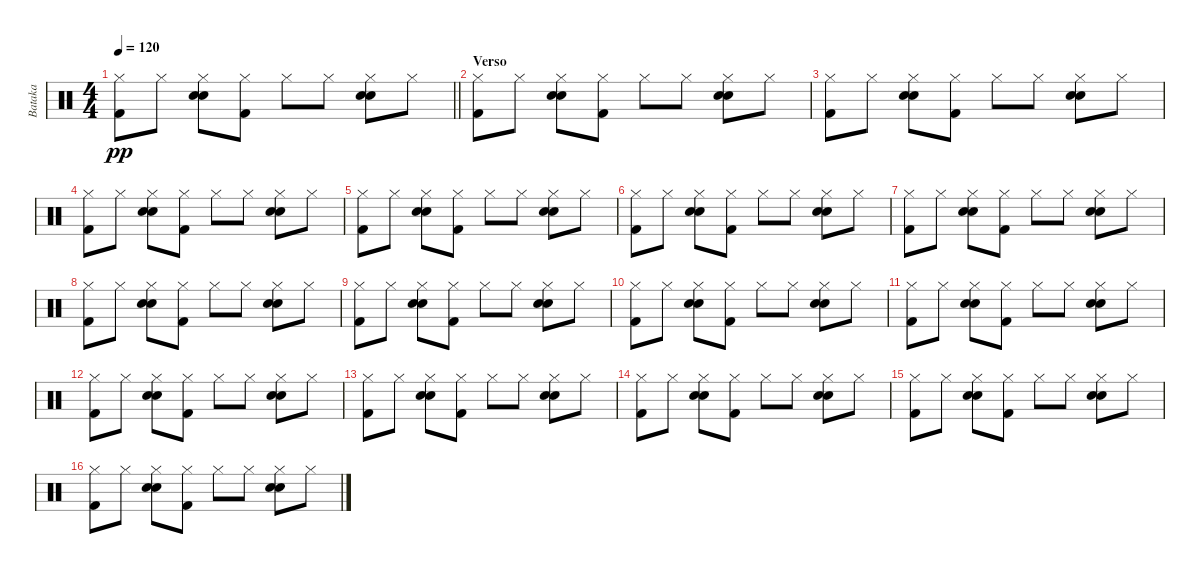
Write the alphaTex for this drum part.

\track ("Bataka" "Bataka") {instrument percussion}
\staff {score}
\articulation defaults
\ts (4 4)
\tempo 120
\clef neutral
\barLineRight lightlight
\ks c
("Hi-Hat (closed)" "Kick (hit) 2").8{dy pp} "Hi-Hat (closed)".8 ("Hi-Hat (closed)" "Electric Snare (hit)" "Snare (hit) 2").8 ("Hi-Hat (closed)" "Kick (hit) 2").8 "Hi-Hat (closed)".8 "Hi-Hat (closed)".8 ("Hi-Hat (closed)" "Snare (hit) 2" "Electric Snare (hit)").8 "Hi-Hat (closed)".8 |
\section ("" "Verso")
("Hi-Hat (closed)" "Kick (hit) 2").8 "Hi-Hat (closed)".8 ("Hi-Hat (closed)" "Electric Snare (hit)" "Snare (hit) 2").8 ("Hi-Hat (closed)" "Kick (hit) 2").8 "Hi-Hat (closed)".8 "Hi-Hat (closed)".8 ("Hi-Hat (closed)" "Snare (hit) 2" "Electric Snare (hit)").8 "Hi-Hat (closed)".8 |
("Hi-Hat (closed)" "Kick (hit) 2").8 "Hi-Hat (closed)".8 ("Hi-Hat (closed)" "Electric Snare (hit)" "Snare (hit) 2").8 ("Hi-Hat (closed)" "Kick (hit) 2").8 "Hi-Hat (closed)".8 "Hi-Hat (closed)".8 ("Hi-Hat (closed)" "Snare (hit) 2" "Electric Snare (hit)").8 "Hi-Hat (closed)".8 |
("Hi-Hat (closed)" "Kick (hit) 2").8 "Hi-Hat (closed)".8 ("Hi-Hat (closed)" "Electric Snare (hit)" "Snare (hit) 2").8 ("Hi-Hat (closed)" "Kick (hit) 2").8 "Hi-Hat (closed)".8 "Hi-Hat (closed)".8 ("Hi-Hat (closed)" "Snare (hit) 2" "Electric Snare (hit)").8 "Hi-Hat (closed)".8 |
("Hi-Hat (closed)" "Kick (hit) 2").8 "Hi-Hat (closed)".8 ("Hi-Hat (closed)" "Electric Snare (hit)" "Snare (hit) 2").8 ("Hi-Hat (closed)" "Kick (hit) 2").8 "Hi-Hat (closed)".8 "Hi-Hat (closed)".8 ("Hi-Hat (closed)" "Snare (hit) 2" "Electric Snare (hit)").8 "Hi-Hat (closed)".8 |
("Hi-Hat (closed)" "Kick (hit) 2").8 "Hi-Hat (closed)".8 ("Hi-Hat (closed)" "Electric Snare (hit)" "Snare (hit) 2").8 ("Hi-Hat (closed)" "Kick (hit) 2").8 "Hi-Hat (closed)".8 "Hi-Hat (closed)".8 ("Hi-Hat (closed)" "Snare (hit) 2" "Electric Snare (hit)").8 "Hi-Hat (closed)".8 |
("Hi-Hat (closed)" "Kick (hit) 2").8 "Hi-Hat (closed)".8 ("Hi-Hat (closed)" "Electric Snare (hit)" "Snare (hit) 2").8 ("Hi-Hat (closed)" "Kick (hit) 2").8 "Hi-Hat (closed)".8 "Hi-Hat (closed)".8 ("Hi-Hat (closed)" "Snare (hit) 2" "Electric Snare (hit)").8 "Hi-Hat (closed)".8 |
("Hi-Hat (closed)" "Kick (hit) 2").8 "Hi-Hat (closed)".8 ("Hi-Hat (closed)" "Electric Snare (hit)" "Snare (hit) 2").8 ("Hi-Hat (closed)" "Kick (hit) 2").8 "Hi-Hat (closed)".8 "Hi-Hat (closed)".8 ("Hi-Hat (closed)" "Snare (hit) 2" "Electric Snare (hit)").8 "Hi-Hat (closed)".8 |
("Hi-Hat (closed)" "Kick (hit) 2").8 "Hi-Hat (closed)".8 ("Hi-Hat (closed)" "Electric Snare (hit)" "Snare (hit) 2").8 ("Hi-Hat (closed)" "Kick (hit) 2").8 "Hi-Hat (closed)".8 "Hi-Hat (closed)".8 ("Hi-Hat (closed)" "Snare (hit) 2" "Electric Snare (hit)").8 "Hi-Hat (closed)".8 |
("Hi-Hat (closed)" "Kick (hit) 2").8 "Hi-Hat (closed)".8 ("Hi-Hat (closed)" "Electric Snare (hit)" "Snare (hit) 2").8 ("Hi-Hat (closed)" "Kick (hit) 2").8 "Hi-Hat (closed)".8 "Hi-Hat (closed)".8 ("Hi-Hat (closed)" "Snare (hit) 2" "Electric Snare (hit)").8 "Hi-Hat (closed)".8 |
("Hi-Hat (closed)" "Kick (hit) 2").8 "Hi-Hat (closed)".8 ("Hi-Hat (closed)" "Electric Snare (hit)" "Snare (hit) 2").8 ("Hi-Hat (closed)" "Kick (hit) 2").8 "Hi-Hat (closed)".8 "Hi-Hat (closed)".8 ("Hi-Hat (closed)" "Snare (hit) 2" "Electric Snare (hit)").8 "Hi-Hat (closed)".8 |
("Hi-Hat (closed)" "Kick (hit) 2").8 "Hi-Hat (closed)".8 ("Hi-Hat (closed)" "Electric Snare (hit)" "Snare (hit) 2").8 ("Hi-Hat (closed)" "Kick (hit) 2").8 "Hi-Hat (closed)".8 "Hi-Hat (closed)".8 ("Hi-Hat (closed)" "Snare (hit) 2" "Electric Snare (hit)").8 "Hi-Hat (closed)".8 |
("Hi-Hat (closed)" "Kick (hit) 2").8 "Hi-Hat (closed)".8 ("Hi-Hat (closed)" "Electric Snare (hit)" "Snare (hit) 2").8 ("Hi-Hat (closed)" "Kick (hit) 2").8 "Hi-Hat (closed)".8 "Hi-Hat (closed)".8 ("Hi-Hat (closed)" "Snare (hit) 2" "Electric Snare (hit)").8 "Hi-Hat (closed)".8 |
("Hi-Hat (closed)" "Kick (hit) 2").8 "Hi-Hat (closed)".8 ("Hi-Hat (closed)" "Electric Snare (hit)" "Snare (hit) 2").8 ("Hi-Hat (closed)" "Kick (hit) 2").8 "Hi-Hat (closed)".8 "Hi-Hat (closed)".8 ("Hi-Hat (closed)" "Snare (hit) 2" "Electric Snare (hit)").8 "Hi-Hat (closed)".8 |
("Hi-Hat (closed)" "Kick (hit) 2").8 "Hi-Hat (closed)".8 ("Hi-Hat (closed)" "Electric Snare (hit)" "Snare (hit) 2").8 ("Hi-Hat (closed)" "Kick (hit) 2").8 "Hi-Hat (closed)".8 "Hi-Hat (closed)".8 ("Hi-Hat (closed)" "Snare (hit) 2" "Electric Snare (hit)").8 "Hi-Hat (closed)".8 |
("Hi-Hat (closed)" "Kick (hit) 2").8 "Hi-Hat (closed)".8 ("Hi-Hat (closed)" "Electric Snare (hit)" "Snare (hit) 2").8 ("Hi-Hat (closed)" "Kick (hit) 2").8 "Hi-Hat (closed)".8 "Hi-Hat (closed)".8 ("Hi-Hat (closed)" "Snare (hit) 2" "Electric Snare (hit)").8 "Hi-Hat (closed)".8
